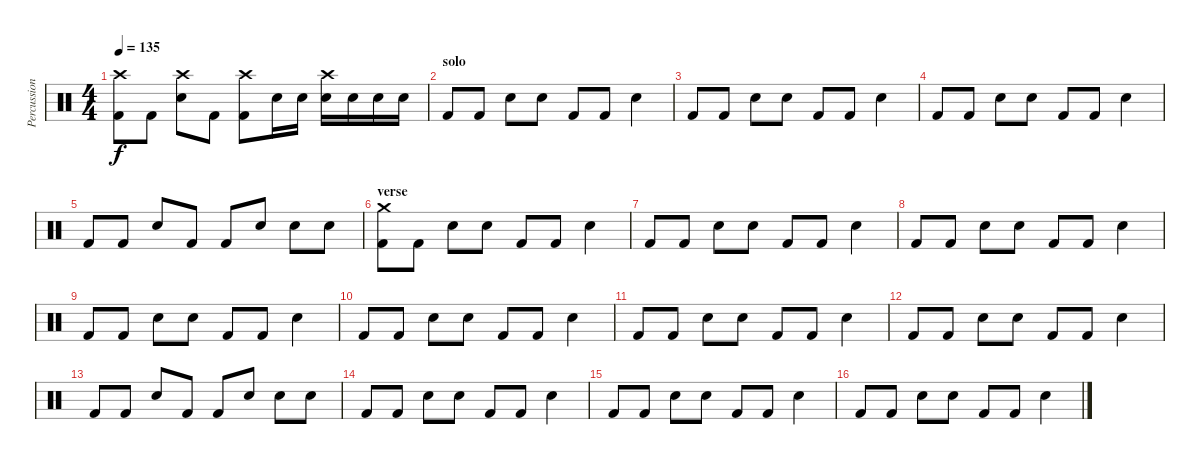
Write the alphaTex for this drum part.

\track ("Percussion" "Percussion") {instrument percussion}
\staff {score}
\articulation defaults
\ts (4 4)
\tempo 135
\clef neutral
\ks c
("Kick (hit) 2" "Crash high (hit)").8{dy f} "Kick (hit) 2".8 ("Snare (hit) 2" "Crash high (hit)").8 "Kick (hit) 2".8 ("Kick (hit) 2" "Crash high (hit)").8 "Snare (hit) 2".16 "Snare (hit) 2".16 ("Snare (hit) 2" "Crash high (hit)").16 "Snare (hit) 2".16 "Snare (hit) 2".16 "Snare (hit) 2".16 |
\section ("" "solo")
"Kick (hit) 2".8 "Kick (hit) 2".8 "Snare (hit) 2".8 "Snare (hit) 2".8 "Kick (hit) 2".8 "Kick (hit) 2".8 "Snare (hit) 2".4 |
"Kick (hit) 2".8 "Kick (hit) 2".8 "Snare (hit) 2".8 "Snare (hit) 2".8 "Kick (hit) 2".8 "Kick (hit) 2".8 "Snare (hit) 2".4 |
"Kick (hit) 2".8 "Kick (hit) 2".8 "Snare (hit) 2".8 "Snare (hit) 2".8 "Kick (hit) 2".8 "Kick (hit) 2".8 "Snare (hit) 2".4 |
"Kick (hit) 2".8 "Kick (hit) 2".8 "Snare (hit) 2".8 "Kick (hit) 2".8 "Kick (hit) 2".8 "Snare (hit) 2".8 "Snare (hit) 2".8 "Snare (hit) 2".8 |
\section ("" "verse")
("Kick (hit) 2" "Crash medium (hit)").8 "Kick (hit) 2".8 "Snare (hit) 2".8 "Snare (hit) 2".8 "Kick (hit) 2".8 "Kick (hit) 2".8 "Snare (hit) 2".4 |
"Kick (hit) 2".8 "Kick (hit) 2".8 "Snare (hit) 2".8 "Snare (hit) 2".8 "Kick (hit) 2".8 "Kick (hit) 2".8 "Snare (hit) 2".4 |
"Kick (hit) 2".8 "Kick (hit) 2".8 "Snare (hit) 2".8 "Snare (hit) 2".8 "Kick (hit) 2".8 "Kick (hit) 2".8 "Snare (hit) 2".4 |
"Kick (hit) 2".8 "Kick (hit) 2".8 "Snare (hit) 2".8 "Snare (hit) 2".8 "Kick (hit) 2".8 "Kick (hit) 2".8 "Snare (hit) 2".4 |
"Kick (hit) 2".8 "Kick (hit) 2".8 "Snare (hit) 2".8 "Snare (hit) 2".8 "Kick (hit) 2".8 "Kick (hit) 2".8 "Snare (hit) 2".4 |
"Kick (hit) 2".8 "Kick (hit) 2".8 "Snare (hit) 2".8 "Snare (hit) 2".8 "Kick (hit) 2".8 "Kick (hit) 2".8 "Snare (hit) 2".4 |
"Kick (hit) 2".8 "Kick (hit) 2".8 "Snare (hit) 2".8 "Snare (hit) 2".8 "Kick (hit) 2".8 "Kick (hit) 2".8 "Snare (hit) 2".4 |
"Kick (hit) 2".8 "Kick (hit) 2".8 "Snare (hit) 2".8 "Kick (hit) 2".8 "Kick (hit) 2".8 "Snare (hit) 2".8 "Snare (hit) 2".8 "Snare (hit) 2".8 |
"Kick (hit) 2".8 "Kick (hit) 2".8 "Snare (hit) 2".8 "Snare (hit) 2".8 "Kick (hit) 2".8 "Kick (hit) 2".8 "Snare (hit) 2".4 |
"Kick (hit) 2".8 "Kick (hit) 2".8 "Snare (hit) 2".8 "Snare (hit) 2".8 "Kick (hit) 2".8 "Kick (hit) 2".8 "Snare (hit) 2".4 |
"Kick (hit) 2".8 "Kick (hit) 2".8 "Snare (hit) 2".8 "Snare (hit) 2".8 "Kick (hit) 2".8 "Kick (hit) 2".8 "Snare (hit) 2".4
